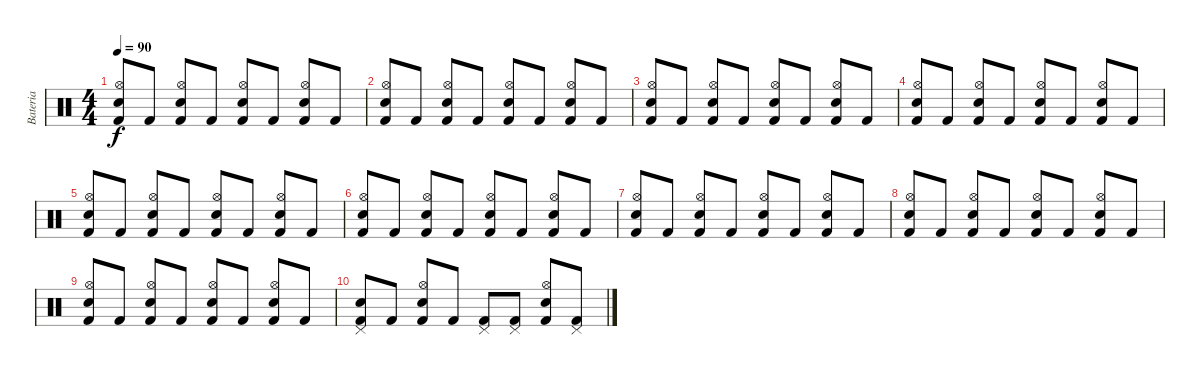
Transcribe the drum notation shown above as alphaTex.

\track ("Bateria" "Bateria") {instrument percussion}
\staff {score}
\articulation defaults
\ts (4 4)
\tempo 90
\clef neutral
\ks c
("Kick (hit) 2" "Hi-Hat (open)" "Electric Snare (hit)").8{dy f} "Kick (hit) 2".8 ("Hi-Hat (open)" "Kick (hit) 2" "Electric Snare (hit)").8 "Kick (hit) 2".8 ("Kick (hit) 2" "Electric Snare (hit)" "Hi-Hat (open)").8 "Kick (hit) 2".8 ("Kick (hit) 2" "Hi-Hat (open)" "Electric Snare (hit)").8 "Kick (hit) 2".8 |
("Kick (hit) 2" "Hi-Hat (open)" "Electric Snare (hit)").8 "Kick (hit) 2".8 ("Hi-Hat (open)" "Kick (hit) 2" "Electric Snare (hit)").8 "Kick (hit) 2".8 ("Kick (hit) 2" "Electric Snare (hit)" "Hi-Hat (open)").8 "Kick (hit) 2".8 ("Kick (hit) 2" "Hi-Hat (open)" "Electric Snare (hit)").8 "Kick (hit) 2".8 |
("Kick (hit) 2" "Hi-Hat (open)" "Electric Snare (hit)").8 "Kick (hit) 2".8 ("Hi-Hat (open)" "Kick (hit) 2" "Electric Snare (hit)").8 "Kick (hit) 2".8 ("Kick (hit) 2" "Electric Snare (hit)" "Hi-Hat (open)").8 "Kick (hit) 2".8 ("Kick (hit) 2" "Hi-Hat (open)" "Electric Snare (hit)").8 "Kick (hit) 2".8 |
("Kick (hit) 2" "Hi-Hat (open)" "Electric Snare (hit)").8 "Kick (hit) 2".8 ("Hi-Hat (open)" "Kick (hit) 2" "Electric Snare (hit)").8 "Kick (hit) 2".8 ("Kick (hit) 2" "Electric Snare (hit)" "Hi-Hat (open)").8 "Kick (hit) 2".8 ("Kick (hit) 2" "Hi-Hat (open)" "Electric Snare (hit)").8 "Kick (hit) 2".8 |
("Kick (hit) 2" "Hi-Hat (open)" "Electric Snare (hit)").8 "Kick (hit) 2".8 ("Hi-Hat (open)" "Kick (hit) 2" "Electric Snare (hit)").8 "Kick (hit) 2".8 ("Kick (hit) 2" "Electric Snare (hit)" "Hi-Hat (open)").8 "Kick (hit) 2".8 ("Kick (hit) 2" "Hi-Hat (open)" "Electric Snare (hit)").8 "Kick (hit) 2".8 |
("Kick (hit) 2" "Hi-Hat (open)" "Electric Snare (hit)").8 "Kick (hit) 2".8 ("Hi-Hat (open)" "Kick (hit) 2" "Electric Snare (hit)").8 "Kick (hit) 2".8 ("Kick (hit) 2" "Electric Snare (hit)" "Hi-Hat (open)").8 "Kick (hit) 2".8 ("Kick (hit) 2" "Hi-Hat (open)" "Electric Snare (hit)").8 "Kick (hit) 2".8 |
("Kick (hit) 2" "Hi-Hat (open)" "Electric Snare (hit)").8 "Kick (hit) 2".8 ("Hi-Hat (open)" "Kick (hit) 2" "Electric Snare (hit)").8 "Kick (hit) 2".8 ("Kick (hit) 2" "Electric Snare (hit)" "Hi-Hat (open)").8 "Kick (hit) 2".8 ("Kick (hit) 2" "Hi-Hat (open)" "Electric Snare (hit)").8 "Kick (hit) 2".8 |
("Kick (hit) 2" "Hi-Hat (open)" "Electric Snare (hit)").8 "Kick (hit) 2".8 ("Hi-Hat (open)" "Kick (hit) 2" "Electric Snare (hit)").8 "Kick (hit) 2".8 ("Kick (hit) 2" "Electric Snare (hit)" "Hi-Hat (open)").8 "Kick (hit) 2".8 ("Kick (hit) 2" "Hi-Hat (open)" "Electric Snare (hit)").8 "Kick (hit) 2".8 |
("Kick (hit) 2" "Hi-Hat (open)" "Electric Snare (hit)").8 "Kick (hit) 2".8 ("Hi-Hat (open)" "Kick (hit) 2" "Electric Snare (hit)").8 "Kick (hit) 2".8 ("Kick (hit) 2" "Electric Snare (hit)" "Hi-Hat (open)").8 "Kick (hit) 2".8 ("Kick (hit) 2" "Hi-Hat (open)" "Electric Snare (hit)").8 "Kick (hit) 2".8 |
("Kick (hit) 2" "Pedal Hi-Hat (hit)" "Electric Snare (hit)").8 "Kick (hit) 2".8 ("Hi-Hat (open)" "Kick (hit) 2" "Electric Snare (hit)").8 "Kick (hit) 2".8 ("Kick (hit) 2" "Pedal Hi-Hat (hit)").8 ("Kick (hit) 2" "Pedal Hi-Hat (hit)").8 ("Kick (hit) 2" "Hi-Hat (open)" "Electric Snare (hit)").8 ("Kick (hit) 2" "Pedal Hi-Hat (hit)").8
